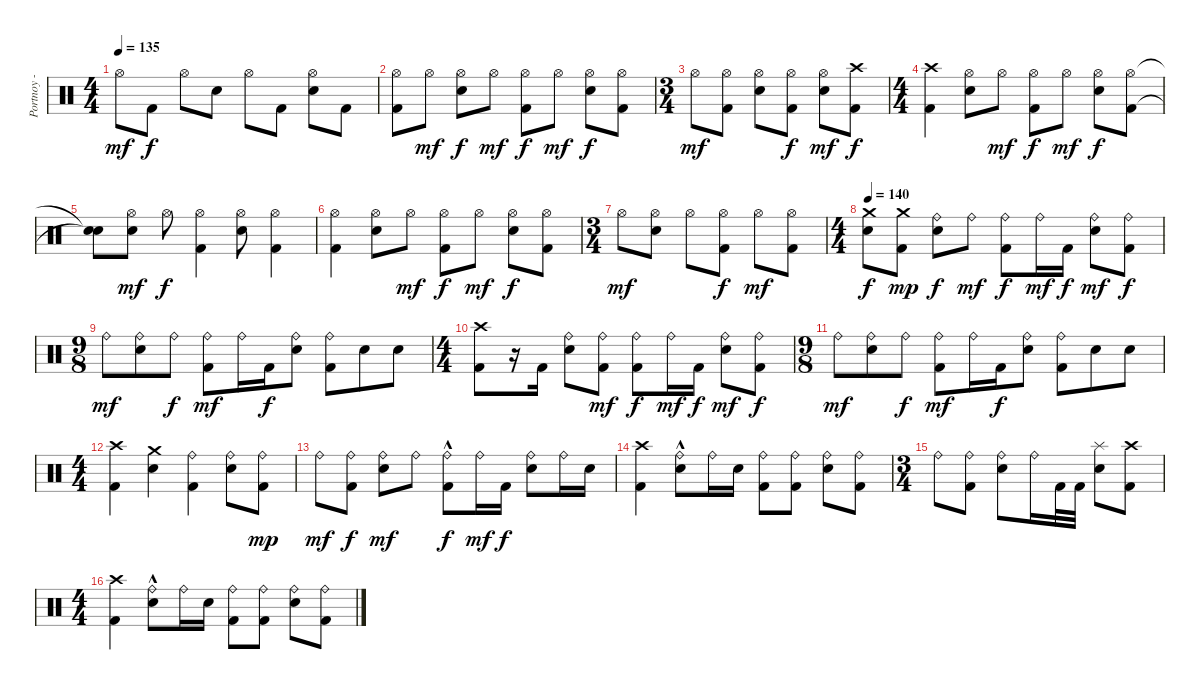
\track ("Portnoy - Drums" "Portnoy - ") {instrument percussion}
\staff {score}
\articulation defaults
\ts (4 4)
\tempo 135
\clef neutral
\ks c "Hi-Hat (open)".8{dy mf} "Kick (hit) 2".8{dy f} "Hi-Hat (open)".8 "Electric Snare (hit)".8 "Hi-Hat (open)".8 "Kick (hit) 2".8
("Electric Snare (hit)" "Hi-Hat (open)").8 "Kick (hit) 2".8 |
("Kick (hit) 2" "Hi-Hat (open)").8 "Hi-Hat (open)".8{dy mf} ("Electric Snare (hit)" "Hi-Hat (open)").8{dy f} "Hi-Hat (open)".8{dy mf} ("Kick (hit) 2" "Hi-Hat (open)").8{dy f} "Hi-Hat (open)".8{dy mf} ("Electric Snare (hit)" "Hi-Hat (open)").8{dy f} ("Hi-Hat (open)" "Kick (hit) 2").8 |
\ts (3 4)
"Hi-Hat (open)".8{dy mf} ("Hi-Hat (open)" "Kick (hit) 2").8 ("Hi-Hat (open)" "Electric Snare (hit)").8 ("Hi-Hat (open)" "Kick (hit) 2").8{dy f} ("Electric Snare (hit)" "Hi-Hat (open)").8{dy mf} ("Kick (hit) 2" "Crash high (hit)").8{dy f} |
\ts (4 4)
("Kick (hit) 2" "Crash high (hit)").4 ("Electric Snare (hit)" "Hi-Hat (open)").8 "Hi-Hat (open)".8{dy mf} ("Kick (hit) 2" "Hi-Hat (open)").8{dy f} "Hi-Hat (open)".8{dy mf} ("Electric Snare (hit)" "Hi-Hat (open)").8{dy f} ("Kick (hit) 2" "Hi-Hat (open)").8 |
("Snare (hit)"{t} "Snare (hit)"{t}).8 ("Electric Snare (hit)" "Hi-Hat (open)").8{dy mf} "Hi-Hat (open)".8{dy f} ("Kick (hit) 2" "Hi-Hat (open)").4 ("Electric Snare (hit)" "Hi-Hat (open)").8 ("Hi-Hat (open)" "Kick (hit) 2").4 |
("Kick (hit) 2" "Hi-Hat (open)").4 ("Electric Snare (hit)" "Hi-Hat (open)").8 "Hi-Hat (open)".8{dy mf} ("Kick (hit) 2" "Hi-Hat (open)").8{dy f} "Hi-Hat (open)".8{dy mf} ("Electric Snare (hit)" "Hi-Hat (open)").8{dy f} ("Kick (hit) 2" "Hi-Hat (open)").8 |
\ts (3 4)
"Hi-Hat (open)".8{dy mf} ("Electric Snare (hit)" "Hi-Hat (open)").8 "Hi-Hat (open)".8 ("Hi-Hat (open)" "Kick (hit) 2").8{dy f} "Hi-Hat (open)".8{dy mf} ("Hi-Hat (open)" "Kick (hit) 2").8 |
\ts (4 4)
\tempo 140
("Electric Snare (hit)" "Crash medium (hit)").8{dy f} ("Kick (hit) 2" "Crash medium (hit)").8{dy mp} ("Electric Snare (hit)" "Ride (bell)").8{dy f} "Ride (bell)".8{dy mf} ("Kick (hit) 2" "Ride (bell)").8{dy f} "Ride (bell)".16{dy mf} "Kick (hit) 2".16{dy f} ("Electric Snare (hit)" "Ride (bell)").8{dy mf} ("Kick (hit) 2" "Ride (bell)").8{dy f} |
\ts (9 8)
"Ride (bell)".8{dy mf} ("Electric Snare (hit)" "Ride (bell)").8 "Ride (bell)".8{dy f} ("Kick (hit) 2" "Ride (bell)").8{dy mf} "Ride (bell)".16 "Kick (hit) 2".16{dy f} ("Electric Snare (hit)" "Ride (bell)").8 ("Kick (hit) 2" "Ride (bell)").8 "Electric Snare (hit)".8 "Electric Snare (hit)".8 |
\ts (4 4)
("Crash high (hit)" "Kick (hit) 2").8 r.16 "Kick (hit) 2".16 ("Electric Snare (hit)" "Ride (bell)").8 ("Ride (bell)" "Kick (hit) 2").8{dy mf} ("Kick (hit) 2" "Ride (bell)").8{dy f} "Ride (bell)".16{dy mf} "Kick (hit) 2".16{dy f} ("Electric Snare (hit)" "Ride (bell)").8{dy mf} ("Kick (hit) 2" "Ride (bell)").8{dy f} |
\ts (9 8)
"Ride (bell)".8{dy mf} ("Electric Snare (hit)" "Ride (bell)").8 "Ride (bell)".8{dy f} ("Ride (bell)" "Kick (hit) 2").8{dy mf} "Ride (bell)".16 "Kick (hit) 2".16{dy f} ("Electric Snare (hit)" "Ride (bell)").8 ("Kick (hit) 2" "Ride (bell)").8 "Electric Snare (hit)".8 "Electric Snare (hit)".8 |
\ts (4 4)
("Crash high (hit)" "Kick (hit) 2").4 ("Crash medium (hit)" "Electric Snare (hit)").4 ("Kick (hit) 2" "Ride (bell)").4 ("Electric Snare (hit)" "Ride (bell)").8 ("Kick (hit) 2" "Ride (bell)").8{dy mp} |
"Ride (bell)".8{dy mf} ("Kick (hit) 2" "Ride (bell)").8{dy f} ("Electric Snare (hit)" "Ride (bell)").8{dy mf} "Ride (bell)".8 ("Kick (hit) 2"{hac} "Ride (bell)").8{dy f} "Ride (bell)".16{dy mf} "Kick (hit) 2".16{dy f} ("Electric Snare (hit)" "Ride (bell)").8 "Ride (bell)".16 "Electric Snare (hit)".16 |
("Kick (hit) 2" "Crash high (hit)").4 ("Electric Snare (hit)"{hac} "Ride (bell)").8 "Ride (bell)".16 "Electric Snare (hit)".16 ("Kick (hit) 2" "Ride (bell)").8 ("Kick (hit) 2" "Ride (bell)").8 ("Electric Snare (hit)" "Ride (bell)").8 ("Kick (hit) 2" "Ride (bell)").8 |
\ts (3 4)
"Ride (bell)".8 ("Kick (hit) 2" "Ride (bell)").8 ("Electric Snare (hit)" "Ride (bell)").8 "Ride (bell)".16 "Kick (hit) 2".32 "Kick (hit) 2".32 ("Electric Snare (hit)" "Splash (hit)").8 ("Kick (hit) 2" "Crash high (hit)").8 |
\ts (4 4)
("Crash high (hit)" "Kick (hit) 2").4 ("Electric Snare (hit)"{hac} "Ride (bell)").8 "Ride (bell)".16 "Electric Snare (hit)".16 ("Kick (hit) 2" "Ride (bell)").8 ("Kick (hit) 2" "Ride (bell)").8 ("Electric Snare (hit)" "Ride (bell)").8 ("Kick (hit) 2" "Ride (bell)").8
